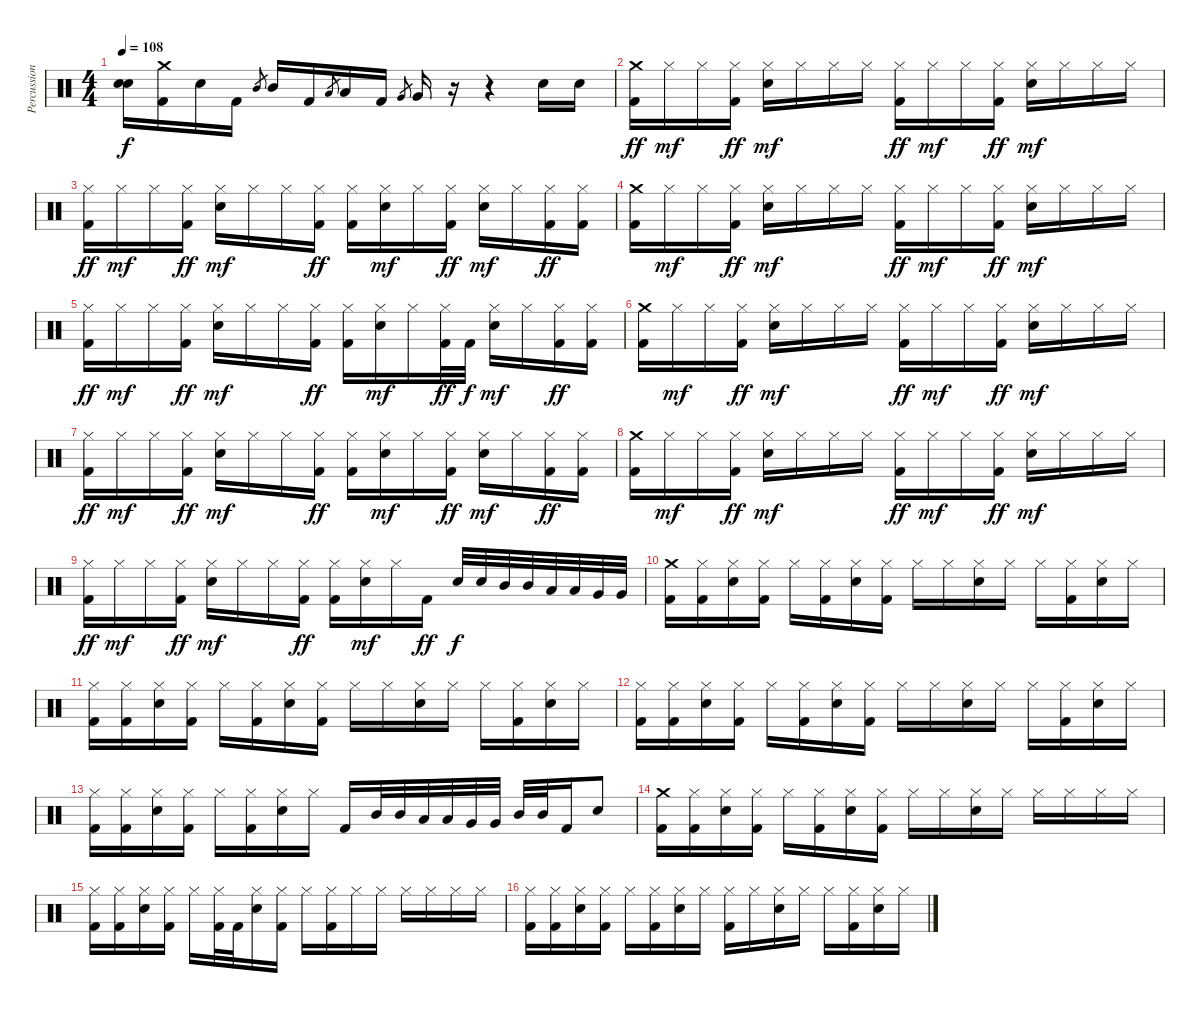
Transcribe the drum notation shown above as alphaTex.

\track ("Percussions" "Percussion") {instrument percussion}
\staff {score}
\articulation defaults
\ts (4 4)
\tempo 108
\clef neutral
\ks c
("Snare (hit)"{t} "Snare (hit)"{t}).16{dy f} ("Crash medium (hit)" "Kick (hit) 2").16 "Electric Snare (hit)".16 "Kick (hit) 2".16 "Mid Tom (hit)".8{gr} "Mid Tom (hit)".16 "Kick (hit) 2".16 "Low Tom (hit)".8{gr} "Low Tom (hit)".16 "Kick (hit) 2".16 "Very Low Tom (hit)".8{gr} "Very Low Tom (hit)".16 r.16 r.4 "Electric Snare (hit)".16 "Electric Snare (hit)".16 |
("Crash medium (hit)" "Kick (hit) 2").16{dy ff} "Hi-Hat (closed)".16{dy mf} "Hi-Hat (closed)".16 ("Hi-Hat (closed)" "Kick (hit) 2").16{dy ff} ("Hi-Hat (closed)" "Electric Snare (hit)").16{dy mf} "Hi-Hat (closed)".16 "Hi-Hat (closed)".16 "Hi-Hat (closed)".16 ("Hi-Hat (closed)" "Kick (hit) 2").16{dy ff} "Hi-Hat (closed)".16{dy mf} "Hi-Hat (closed)".16 ("Hi-Hat (closed)" "Kick (hit) 2").16{dy ff} ("Hi-Hat (closed)" "Electric Snare (hit)").16{dy mf} "Hi-Hat (closed)".16 "Hi-Hat (closed)".16 "Hi-Hat (closed)".16 |
("Hi-Hat (closed)" "Kick (hit) 2").16{dy ff} "Hi-Hat (closed)".16{dy mf} "Hi-Hat (closed)".16 ("Hi-Hat (closed)" "Kick (hit) 2").16{dy ff} ("Hi-Hat (closed)" "Electric Snare (hit)").16{dy mf} "Hi-Hat (closed)".16 "Hi-Hat (closed)".16 ("Hi-Hat (closed)" "Kick (hit) 2").16{dy ff} ("Hi-Hat (closed)" "Kick (hit) 2").16 ("Hi-Hat (closed)" "Electric Snare (hit)").16{dy mf} "Hi-Hat (closed)".16 ("Hi-Hat (closed)" "Kick (hit) 2").16{dy ff} ("Hi-Hat (closed)" "Electric Snare (hit)").16{dy mf} "Hi-Hat (closed)".16 ("Hi-Hat (closed)" "Kick (hit) 2").16{dy ff} ("Hi-Hat (closed)" "Kick (hit) 2").16 |
("Crash medium (hit)" "Kick (hit) 2").16 "Hi-Hat (closed)".16{dy mf} "Hi-Hat (closed)".16 ("Hi-Hat (closed)" "Kick (hit) 2").16{dy ff} ("Hi-Hat (closed)" "Electric Snare (hit)").16{dy mf} "Hi-Hat (closed)".16 "Hi-Hat (closed)".16 "Hi-Hat (closed)".16 ("Hi-Hat (closed)" "Kick (hit) 2").16{dy ff} "Hi-Hat (closed)".16{dy mf} "Hi-Hat (closed)".16 ("Hi-Hat (closed)" "Kick (hit) 2").16{dy ff} ("Hi-Hat (closed)" "Electric Snare (hit)").16{dy mf} "Hi-Hat (closed)".16 "Hi-Hat (closed)".16 "Hi-Hat (closed)".16 |
("Hi-Hat (closed)" "Kick (hit) 2").16{dy ff} "Hi-Hat (closed)".16{dy mf} "Hi-Hat (closed)".16 ("Hi-Hat (closed)" "Kick (hit) 2").16{dy ff} ("Hi-Hat (closed)" "Electric Snare (hit)").16{dy mf} "Hi-Hat (closed)".16 "Hi-Hat (closed)".16 ("Hi-Hat (closed)" "Kick (hit) 2").16{dy ff} ("Hi-Hat (closed)" "Kick (hit) 2").16 ("Hi-Hat (closed)" "Electric Snare (hit)").16{dy mf} "Hi-Hat (closed)".16 ("Hi-Hat (closed)" "Kick (hit) 2").32{dy ff} "Kick (hit) 2".32{dy f} ("Hi-Hat (closed)" "Electric Snare (hit)").16{dy mf} "Hi-Hat (closed)".16 ("Hi-Hat (closed)" "Kick (hit) 2").16{dy ff} ("Hi-Hat (closed)" "Kick (hit) 2").16 |
("Crash medium (hit)" "Kick (hit) 2").16 "Hi-Hat (closed)".16{dy mf} "Hi-Hat (closed)".16 ("Hi-Hat (closed)" "Kick (hit) 2").16{dy ff} ("Hi-Hat (closed)" "Electric Snare (hit)").16{dy mf} "Hi-Hat (closed)".16 "Hi-Hat (closed)".16 "Hi-Hat (closed)".16 ("Hi-Hat (closed)" "Kick (hit) 2").16{dy ff} "Hi-Hat (closed)".16{dy mf} "Hi-Hat (closed)".16 ("Hi-Hat (closed)" "Kick (hit) 2").16{dy ff} ("Hi-Hat (closed)" "Electric Snare (hit)").16{dy mf} "Hi-Hat (closed)".16 "Hi-Hat (closed)".16 "Hi-Hat (closed)".16 |
("Hi-Hat (closed)" "Kick (hit) 2").16{dy ff} "Hi-Hat (closed)".16{dy mf} "Hi-Hat (closed)".16 ("Hi-Hat (closed)" "Kick (hit) 2").16{dy ff} ("Hi-Hat (closed)" "Electric Snare (hit)").16{dy mf} "Hi-Hat (closed)".16 "Hi-Hat (closed)".16 ("Hi-Hat (closed)" "Kick (hit) 2").16{dy ff} ("Hi-Hat (closed)" "Kick (hit) 2").16 ("Hi-Hat (closed)" "Electric Snare (hit)").16{dy mf} "Hi-Hat (closed)".16 ("Hi-Hat (closed)" "Kick (hit) 2").16{dy ff} ("Hi-Hat (closed)" "Electric Snare (hit)").16{dy mf} "Hi-Hat (closed)".16 ("Hi-Hat (closed)" "Kick (hit) 2").16{dy ff} ("Hi-Hat (closed)" "Kick (hit) 2").16 |
("Crash medium (hit)" "Kick (hit) 2").16 "Hi-Hat (closed)".16{dy mf} "Hi-Hat (closed)".16 ("Hi-Hat (closed)" "Kick (hit) 2").16{dy ff} ("Hi-Hat (closed)" "Electric Snare (hit)").16{dy mf} "Hi-Hat (closed)".16 "Hi-Hat (closed)".16 "Hi-Hat (closed)".16 ("Hi-Hat (closed)" "Kick (hit) 2").16{dy ff} "Hi-Hat (closed)".16{dy mf} "Hi-Hat (closed)".16 ("Hi-Hat (closed)" "Kick (hit) 2").16{dy ff} ("Hi-Hat (closed)" "Electric Snare (hit)").16{dy mf} "Hi-Hat (closed)".16 "Hi-Hat (closed)".16 "Hi-Hat (closed)".16 |
("Hi-Hat (closed)" "Kick (hit) 2").16{dy ff} "Hi-Hat (closed)".16{dy mf} "Hi-Hat (closed)".16 ("Hi-Hat (closed)" "Kick (hit) 2").16{dy ff} ("Hi-Hat (closed)" "Electric Snare (hit)").16{dy mf} "Hi-Hat (closed)".16 "Hi-Hat (closed)".16 ("Hi-Hat (closed)" "Kick (hit) 2").16{dy ff} ("Hi-Hat (closed)" "Kick (hit) 2").16 ("Hi-Hat (closed)" "Electric Snare (hit)").16{dy mf} "Hi-Hat (closed)".16 "Kick (hit) 2".16{dy ff} "Electric Snare (hit)".32{dy f} "Electric Snare (hit)".32 "Mid Tom (hit)".32 "Mid Tom (hit)".32 "Low Tom (hit)".32 "Low Tom (hit)".32 "Very Low Tom (hit)".32 "Very Low Tom (hit)".32 |
("Crash medium (hit)" "Kick (hit) 2").16 ("Hi-Hat (closed)" "Kick (hit) 2").16 ("Hi-Hat (closed)" "Electric Snare (hit)").16 ("Hi-Hat (closed)" "Kick (hit) 2").16 "Hi-Hat (closed)".16 ("Hi-Hat (closed)" "Kick (hit) 2").16 ("Hi-Hat (closed)" "Electric Snare (hit)").16 ("Hi-Hat (closed)" "Kick (hit) 2").16 "Hi-Hat (closed)".16 "Hi-Hat (closed)".16 ("Hi-Hat (closed)" "Electric Snare (hit)").16 "Hi-Hat (closed)".16 "Hi-Hat (closed)".16 ("Hi-Hat (closed)" "Kick (hit) 2").16 ("Hi-Hat (closed)" "Electric Snare (hit)").16 "Hi-Hat (closed)".16 |
("Hi-Hat (closed)" "Kick (hit) 2").16 ("Hi-Hat (closed)" "Kick (hit) 2").16 ("Hi-Hat (closed)" "Electric Snare (hit)").16 ("Hi-Hat (closed)" "Kick (hit) 2").16 "Hi-Hat (closed)".16 ("Hi-Hat (closed)" "Kick (hit) 2").16 ("Hi-Hat (closed)" "Electric Snare (hit)").16 ("Hi-Hat (closed)" "Kick (hit) 2").16 "Hi-Hat (closed)".16 "Hi-Hat (closed)".16 ("Hi-Hat (closed)" "Electric Snare (hit)").16 "Hi-Hat (closed)".16 "Hi-Hat (closed)".16 ("Hi-Hat (closed)" "Kick (hit) 2").16 ("Hi-Hat (closed)" "Electric Snare (hit)").16 "Hi-Hat (closed)".16 |
("Hi-Hat (closed)" "Kick (hit) 2").16 ("Hi-Hat (closed)" "Kick (hit) 2").16 ("Hi-Hat (closed)" "Electric Snare (hit)").16 ("Hi-Hat (closed)" "Kick (hit) 2").16 "Hi-Hat (closed)".16 ("Hi-Hat (closed)" "Kick (hit) 2").16 ("Hi-Hat (closed)" "Electric Snare (hit)").16 ("Hi-Hat (closed)" "Kick (hit) 2").16 "Hi-Hat (closed)".16 "Hi-Hat (closed)".16 ("Hi-Hat (closed)" "Electric Snare (hit)").16 "Hi-Hat (closed)".16 "Hi-Hat (closed)".16 ("Hi-Hat (closed)" "Kick (hit) 2").16 ("Hi-Hat (closed)" "Electric Snare (hit)").16 "Hi-Hat (closed)".16 |
("Hi-Hat (closed)" "Kick (hit) 2").16 ("Hi-Hat (closed)" "Kick (hit) 2").16 ("Hi-Hat (closed)" "Electric Snare (hit)").16 ("Hi-Hat (closed)" "Kick (hit) 2").16 "Hi-Hat (closed)".16 ("Hi-Hat (closed)" "Kick (hit) 2").16 ("Hi-Hat (closed)" "Electric Snare (hit)").16 "Hi-Hat (closed)".16 "Kick (hit) 2".16 "Mid Tom (hit)".32 "Mid Tom (hit)".32 "Low Tom (hit)".32 "Low Tom (hit)".32 "Very Low Tom (hit)".32 "Very Low Tom (hit)".32 "Mid Tom (hit)".32 "Mid Tom (hit)".32 "Kick (hit) 2".16 "Electric Snare (hit)".8 |
("Crash medium (hit)" "Kick (hit) 2").16 ("Hi-Hat (closed)" "Kick (hit) 2").16 ("Hi-Hat (closed)" "Electric Snare (hit)").16 ("Hi-Hat (closed)" "Kick (hit) 2").16 "Hi-Hat (closed)".16 ("Hi-Hat (closed)" "Kick (hit) 2").16 ("Hi-Hat (closed)" "Electric Snare (hit)").16 ("Hi-Hat (closed)" "Kick (hit) 2").16 "Hi-Hat (closed)".16 "Hi-Hat (closed)".16 ("Hi-Hat (closed)" "Electric Snare (hit)").16 "Hi-Hat (closed)".16 "Hi-Hat (closed)".16 "Hi-Hat (closed)".16 "Hi-Hat (closed)".16 "Hi-Hat (closed)".16 |
("Hi-Hat (closed)" "Kick (hit) 2").16 ("Hi-Hat (closed)" "Kick (hit) 2").16 ("Hi-Hat (closed)" "Electric Snare (hit)").16 ("Hi-Hat (closed)" "Kick (hit) 2").16 "Hi-Hat (closed)".16 ("Hi-Hat (closed)" "Kick (hit) 2").32 "Kick (hit) 2".32 ("Hi-Hat (closed)" "Electric Snare (hit)").16 ("Hi-Hat (closed)" "Kick (hit) 2").16 "Hi-Hat (closed)".16 ("Hi-Hat (closed)" "Kick (hit) 2").16 "Hi-Hat (closed)".16 "Hi-Hat (closed)".16 "Hi-Hat (closed)".16 "Hi-Hat (closed)".16 "Hi-Hat (closed)".16 "Hi-Hat (closed)".16 |
("Hi-Hat (closed)" "Kick (hit) 2").16 ("Hi-Hat (closed)" "Kick (hit) 2").16 ("Hi-Hat (closed)" "Electric Snare (hit)").16 ("Hi-Hat (closed)" "Kick (hit) 2").16 "Hi-Hat (closed)".16 ("Hi-Hat (closed)" "Kick (hit) 2").16 ("Hi-Hat (closed)" "Electric Snare (hit)").16 "Hi-Hat (closed)".16 ("Hi-Hat (closed)" "Kick (hit) 2").16 "Hi-Hat (closed)".16 ("Hi-Hat (closed)" "Electric Snare (hit)").16 "Hi-Hat (closed)".16 "Hi-Hat (closed)".16 ("Hi-Hat (closed)" "Kick (hit) 2").16 ("Hi-Hat (closed)" "Electric Snare (hit)").16 "Hi-Hat (closed)".16
